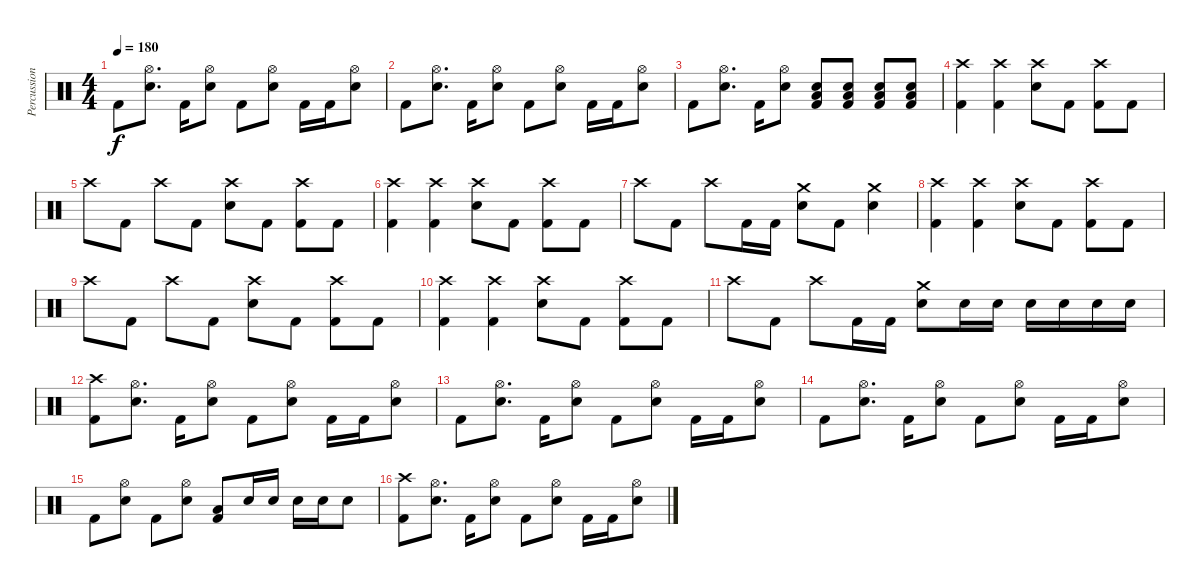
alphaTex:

\track ("Percussion" "Percussion") {instrument percussion}
\staff {score}
\articulation defaults
\ts (4 4)
\tempo 180
\clef neutral
\ks c "Kick (hit) 2".8{dy f}
("Hi-Hat (open)" "Electric Snare (hit)").8{d} "Kick (hit) 2".16 ("Hi-Hat (open)" "Electric Snare (hit)").8 "Kick (hit) 2".8 ("Hi-Hat (open)" "Electric Snare (hit)").8 "Kick (hit) 2".16 "Kick (hit) 2".16 ("Hi-Hat (open)" "Electric Snare (hit)").8 |
"Kick (hit) 2".8 ("Hi-Hat (open)" "Electric Snare (hit)").8{d} "Kick (hit) 2".16 ("Hi-Hat (open)" "Electric Snare (hit)").8 "Kick (hit) 2".8 ("Hi-Hat (open)" "Electric Snare (hit)").8 "Kick (hit) 2".16 "Kick (hit) 2".16 ("Hi-Hat (open)" "Electric Snare (hit)").8 |
"Kick (hit) 2".8 ("Hi-Hat (open)" "Electric Snare (hit)").8{d} "Kick (hit) 2".16 ("Hi-Hat (open)" "Electric Snare (hit)").8 ("Low Tom (hit)" "Electric Snare (hit)" "Kick (hit) 2").8 ("Low Tom (hit)" "Electric Snare (hit)" "Kick (hit) 2").8 ("Low Tom (hit)" "Electric Snare (hit)" "Kick (hit) 2").8 ("Low Tom (hit)" "Electric Snare (hit)" "Kick (hit) 2").8 |
("Crash high (hit)" "Kick (hit) 2").4 ("Crash high (hit)" "Kick (hit) 2").4 ("Crash high (hit)" "Electric Snare (hit)").8 "Kick (hit) 2".8 ("Crash high (hit)" "Kick (hit) 2").8 "Kick (hit) 2".8 |
"Crash high (hit)".8 "Kick (hit) 2".8 "Crash high (hit)".8 "Kick (hit) 2".8 ("Crash high (hit)" "Electric Snare (hit)").8 "Kick (hit) 2".8 ("Crash high (hit)" "Kick (hit) 2").8 "Kick (hit) 2".8 |
("Crash high (hit)" "Kick (hit) 2").4 ("Crash high (hit)" "Kick (hit) 2").4 ("Crash high (hit)" "Electric Snare (hit)").8 "Kick (hit) 2".8 ("Crash high (hit)" "Kick (hit) 2").8 "Kick (hit) 2".8 |
"Crash high (hit)".8 "Kick (hit) 2".8 "Crash high (hit)".8 "Kick (hit) 2".16 "Kick (hit) 2".16 ("Crash medium (hit)" "Electric Snare (hit)").8 "Kick (hit) 2".8 ("Crash medium (hit)" "Electric Snare (hit)").4 |
("Crash high (hit)" "Kick (hit) 2").4 ("Crash high (hit)" "Kick (hit) 2").4 ("Crash high (hit)" "Electric Snare (hit)").8 "Kick (hit) 2".8 ("Crash high (hit)" "Kick (hit) 2").8 "Kick (hit) 2".8 |
"Crash high (hit)".8 "Kick (hit) 2".8 "Crash high (hit)".8 "Kick (hit) 2".8 ("Crash high (hit)" "Electric Snare (hit)").8 "Kick (hit) 2".8 ("Crash high (hit)" "Kick (hit) 2").8 "Kick (hit) 2".8 |
("Crash high (hit)" "Kick (hit) 2").4 ("Crash high (hit)" "Kick (hit) 2").4 ("Crash high (hit)" "Electric Snare (hit)").8 "Kick (hit) 2".8 ("Crash high (hit)" "Kick (hit) 2").8 "Kick (hit) 2".8 |
"Crash high (hit)".8 "Kick (hit) 2".8 "Crash high (hit)".8 "Kick (hit) 2".16 "Kick (hit) 2".16 ("Crash medium (hit)" "Electric Snare (hit)").8 "Electric Snare (hit)".16 "Electric Snare (hit)".16 "Electric Snare (hit)".16 "Electric Snare (hit)".16 "Electric Snare (hit)".16 "Electric Snare (hit)".16 |
("Crash high (hit)" "Kick (hit) 2").8 ("Hi-Hat (open)" "Electric Snare (hit)").8{d} "Kick (hit) 2".16 ("Hi-Hat (open)" "Electric Snare (hit)").8 "Kick (hit) 2".8 ("Hi-Hat (open)" "Electric Snare (hit)").8 "Kick (hit) 2".16 "Kick (hit) 2".16 ("Hi-Hat (open)" "Electric Snare (hit)").8 |
"Kick (hit) 2".8 ("Hi-Hat (open)" "Electric Snare (hit)").8{d} "Kick (hit) 2".16 ("Hi-Hat (open)" "Electric Snare (hit)").8 "Kick (hit) 2".8 ("Hi-Hat (open)" "Electric Snare (hit)").8 "Kick (hit) 2".16 "Kick (hit) 2".16 ("Hi-Hat (open)" "Electric Snare (hit)").8 |
"Kick (hit) 2".8 ("Hi-Hat (open)" "Electric Snare (hit)").8{d} "Kick (hit) 2".16 ("Hi-Hat (open)" "Electric Snare (hit)").8 "Kick (hit) 2".8 ("Hi-Hat (open)" "Electric Snare (hit)").8 "Kick (hit) 2".16 "Kick (hit) 2".16 ("Hi-Hat (open)" "Electric Snare (hit)").8 |
"Kick (hit) 2".8 ("Hi-Hat (open)" "Electric Snare (hit)").8 "Kick (hit) 2".8 ("Hi-Hat (open)" "Electric Snare (hit)").8 ("Low Tom (hit)" "Kick (hit) 2").8 "Electric Snare (hit)".16 "Electric Snare (hit)".16 "Electric Snare (hit)".16 "Electric Snare (hit)".16 "Electric Snare (hit)".8 |
("Crash high (hit)" "Kick (hit) 2").8 ("Hi-Hat (open)" "Electric Snare (hit)").8{d} "Kick (hit) 2".16 ("Hi-Hat (open)" "Electric Snare (hit)").8 "Kick (hit) 2".8 ("Hi-Hat (open)" "Electric Snare (hit)").8 "Kick (hit) 2".16 "Kick (hit) 2".16 ("Hi-Hat (open)" "Electric Snare (hit)").8
